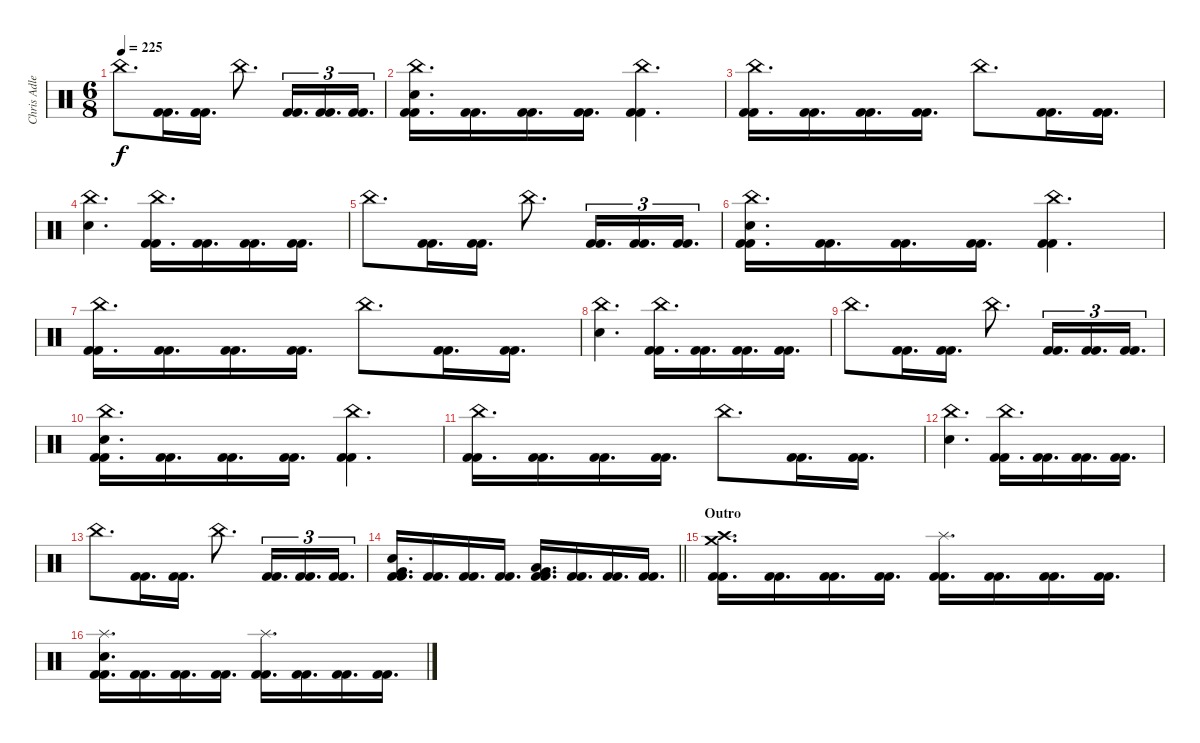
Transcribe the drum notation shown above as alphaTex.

\track ("Chris Adler" "Chris Adle") {instrument percussion}
\staff {score}
\articulation defaults
\ts (6 8)
\tempo 225
\clef neutral
\ks c "China (hit)".8{d dy f}
("Kick (hit) 2" "Kick (hit) 2").16{d} ("Kick (hit) 2" "Kick (hit) 2").16{d} "China (hit)".8{d} ("Kick (hit) 2" "Kick (hit) 2").16{d tu (3 2)} ("Kick (hit) 2" "Kick (hit) 2").16{d tu (3 2)} ("Kick (hit) 2" "Kick (hit) 2").16{d tu (3 2)} |
("China (hit)" "Electric Snare (hit)" "Kick (hit) 2" "Kick (hit) 2").16{d} ("Kick (hit) 2" "Kick (hit) 2").16{d} ("Kick (hit) 2" "Kick (hit) 2").16{d} ("Kick (hit) 2" "Kick (hit) 2").16{d} ("China (hit)" "Kick (hit) 2" "Kick (hit) 2").4{d} |
("China (hit)" "Kick (hit) 2" "Kick (hit) 2").16{d} ("Kick (hit) 2" "Kick (hit) 2").16{d} ("Kick (hit) 2" "Kick (hit) 2").16{d} ("Kick (hit) 2" "Kick (hit) 2").16{d} "China (hit)".8{d} ("Kick (hit) 2" "Kick (hit) 2").16{d} ("Kick (hit) 2" "Kick (hit) 2").16{d} |
("China (hit)" "Electric Snare (hit)").4{d} ("China (hit)" "Kick (hit) 2" "Kick (hit) 2").16{d} ("Kick (hit) 2" "Kick (hit) 2").16{d} ("Kick (hit) 2" "Kick (hit) 2").16{d} ("Kick (hit) 2" "Kick (hit) 2").16{d} |
"China (hit)".8{d} ("Kick (hit) 2" "Kick (hit) 2").16{d} ("Kick (hit) 2" "Kick (hit) 2").16{d} "China (hit)".8{d} ("Kick (hit) 2" "Kick (hit) 2").16{d tu (3 2)} ("Kick (hit) 2" "Kick (hit) 2").16{d tu (3 2)} ("Kick (hit) 2" "Kick (hit) 2").16{d tu (3 2)} |
("China (hit)" "Electric Snare (hit)" "Kick (hit) 2" "Kick (hit) 2").16{d} ("Kick (hit) 2" "Kick (hit) 2").16{d} ("Kick (hit) 2" "Kick (hit) 2").16{d} ("Kick (hit) 2" "Kick (hit) 2").16{d} ("China (hit)" "Kick (hit) 2" "Kick (hit) 2").4{d} |
("China (hit)" "Kick (hit) 2" "Kick (hit) 2").16{d} ("Kick (hit) 2" "Kick (hit) 2").16{d} ("Kick (hit) 2" "Kick (hit) 2").16{d} ("Kick (hit) 2" "Kick (hit) 2").16{d} "China (hit)".8{d} ("Kick (hit) 2" "Kick (hit) 2").16{d} ("Kick (hit) 2" "Kick (hit) 2").16{d} |
("China (hit)" "Electric Snare (hit)").4{d} ("China (hit)" "Kick (hit) 2" "Kick (hit) 2").16{d} ("Kick (hit) 2" "Kick (hit) 2").16{d} ("Kick (hit) 2" "Kick (hit) 2").16{d} ("Kick (hit) 2" "Kick (hit) 2").16{d} |
"China (hit)".8{d} ("Kick (hit) 2" "Kick (hit) 2").16{d} ("Kick (hit) 2" "Kick (hit) 2").16{d} "China (hit)".8{d} ("Kick (hit) 2" "Kick (hit) 2").16{d tu (3 2)} ("Kick (hit) 2" "Kick (hit) 2").16{d tu (3 2)} ("Kick (hit) 2" "Kick (hit) 2").16{d tu (3 2)} |
("China (hit)" "Electric Snare (hit)" "Kick (hit) 2" "Kick (hit) 2").16{d} ("Kick (hit) 2" "Kick (hit) 2").16{d} ("Kick (hit) 2" "Kick (hit) 2").16{d} ("Kick (hit) 2" "Kick (hit) 2").16{d} ("China (hit)" "Kick (hit) 2" "Kick (hit) 2").4{d} |
("China (hit)" "Kick (hit) 2" "Kick (hit) 2").16{d} ("Kick (hit) 2" "Kick (hit) 2").16{d} ("Kick (hit) 2" "Kick (hit) 2").16{d} ("Kick (hit) 2" "Kick (hit) 2").16{d} "China (hit)".8{d} ("Kick (hit) 2" "Kick (hit) 2").16{d} ("Kick (hit) 2" "Kick (hit) 2").16{d} |
("China (hit)" "Electric Snare (hit)").4{d} ("China (hit)" "Kick (hit) 2" "Kick (hit) 2").16{d} ("Kick (hit) 2" "Kick (hit) 2").16{d} ("Kick (hit) 2" "Kick (hit) 2").16{d} ("Kick (hit) 2" "Kick (hit) 2").16{d} |
"China (hit)".8{d} ("Kick (hit) 2" "Kick (hit) 2").16{d} ("Kick (hit) 2" "Kick (hit) 2").16{d} "China (hit)".8{d} ("Kick (hit) 2" "Kick (hit) 2").16{d tu (3 2)} ("Kick (hit) 2" "Kick (hit) 2").16{d tu (3 2)} ("Kick (hit) 2" "Kick (hit) 2").16{d tu (3 2)} |
\barLineRight lightlight
("Very Low Tom (hit)" "Electric Snare (hit)" "Kick (hit) 2" "Kick (hit) 2").16{d} ("Kick (hit) 2" "Kick (hit) 2").16{d} ("Kick (hit) 2" "Kick (hit) 2").16{d} ("Kick (hit) 2" "Kick (hit) 2").16{d} ("Low Tom (hit)" "Very Low Tom (hit)" "Kick (hit) 2" "Kick (hit) 2").16{d} ("Kick (hit) 2" "Kick (hit) 2").16{d} ("Kick (hit) 2" "Kick (hit) 2").16{d} ("Kick (hit) 2" "Kick (hit) 2").16{d} |
\section ("" "Outro")
("Crash medium (hit)" "Crash high (hit)" "Kick (hit) 2" "Kick (hit) 2").16{d} ("Kick (hit) 2" "Kick (hit) 2").16{d} ("Kick (hit) 2" "Kick (hit) 2").16{d} ("Kick (hit) 2" "Kick (hit) 2").16{d} ("Splash (hit)" "Kick (hit) 2" "Kick (hit) 2").16{d} ("Kick (hit) 2" "Kick (hit) 2").16{d} ("Kick (hit) 2" "Kick (hit) 2").16{d} ("Kick (hit) 2" "Kick (hit) 2").16{d} |
("Splash (hit)" "Electric Snare (hit)" "Kick (hit) 2" "Kick (hit) 2").16{d} ("Kick (hit) 2" "Kick (hit) 2").16{d} ("Kick (hit) 2" "Kick (hit) 2").16{d} ("Kick (hit) 2" "Kick (hit) 2").16{d} ("Splash (hit)" "Kick (hit) 2" "Kick (hit) 2").16{d} ("Kick (hit) 2" "Kick (hit) 2").16{d} ("Kick (hit) 2" "Kick (hit) 2").16{d} ("Kick (hit) 2" "Kick (hit) 2").16{d}
